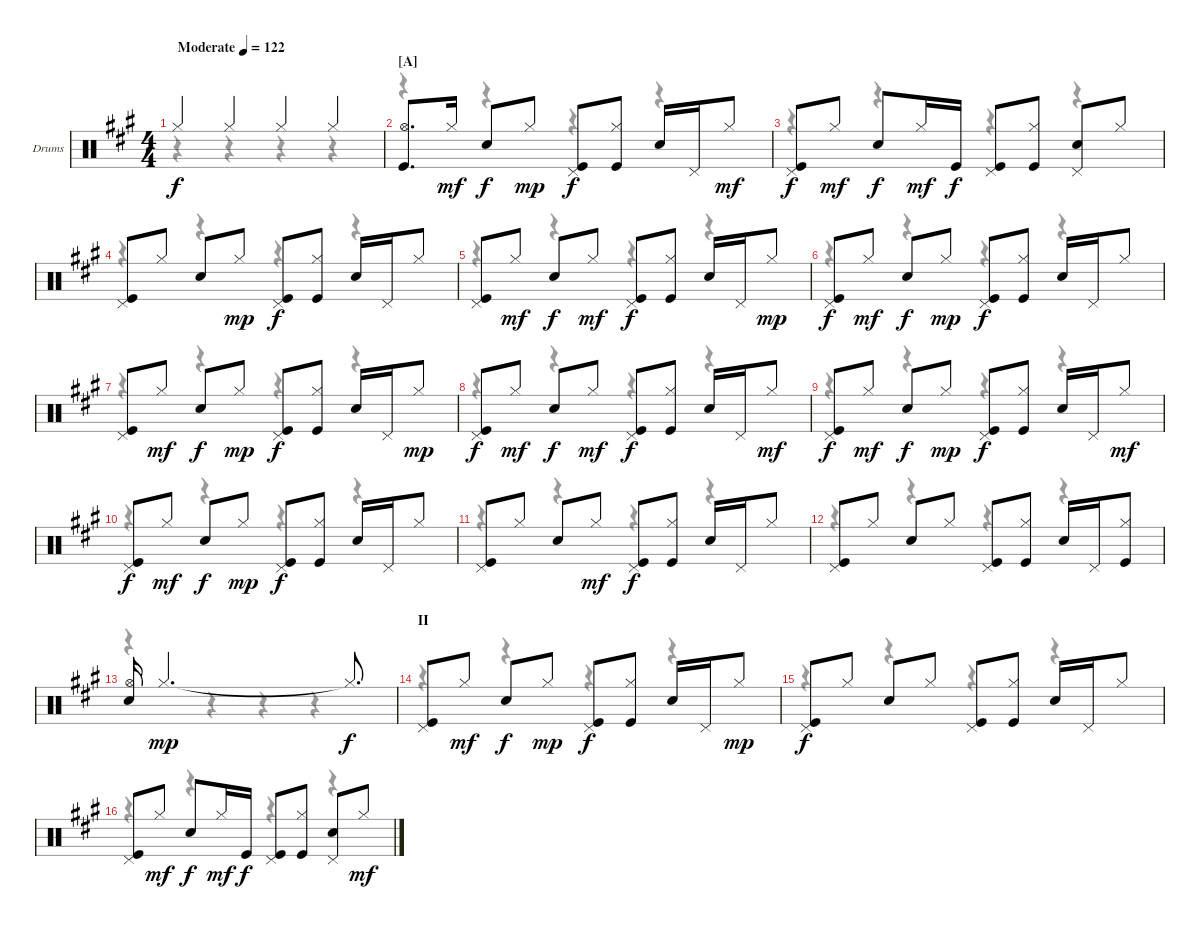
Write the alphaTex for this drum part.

\bracketExtendMode groupsimilarinstruments
\firstSystemTrackNameOrientation horizontal
\otherSystemsTrackNameOrientation horizontal
\track ("Chris Layton - Drums" "Drums") {instrument percussion}
\staff {score}
\articulation defaults
\voice
\ts (4 4)
\beaming (8 2 2 2 2)
\tempo (122 "Moderate")
\clef neutral
\ks a "Hi-Hat (closed)".4{dy f} "Hi-Hat (closed)".4 "Hi-Hat (closed)".4 "Hi-Hat (closed)".4
|
\section ("A" "")
("Kick (hit)" "Hi-Hat (open)").8{d} "Hi-Hat (closed)".16{dy mf} "Snare (hit) 2".8{dy f} "Hi-Hat (closed)".8{dy mp} ("Kick (hit)" "Pedal Hi-Hat (hit)").8{dy f} ("Kick (hit)" "Hi-Hat (closed)").8 "Snare (hit) 2".16 "Pedal Hi-Hat (hit)".16 "Hi-Hat (closed)".8{dy mf} |
("Kick (hit)" "Pedal Hi-Hat (hit)").8{dy f} "Hi-Hat (closed)".8{dy mf} "Snare (hit) 2".8{dy f} "Hi-Hat (closed)".16{dy mf} "Kick (hit)".16{dy f} ("Kick (hit)" "Pedal Hi-Hat (hit)").8 ("Kick (hit)" "Hi-Hat (closed)").8 ("Snare (hit) 2" "Pedal Hi-Hat (hit)").8 "Hi-Hat (closed)".8 |
("Kick (hit)" "Pedal Hi-Hat (hit)").8 "Hi-Hat (closed)".8 "Snare (hit) 2".8 "Hi-Hat (closed)".8{dy mp} ("Kick (hit)" "Pedal Hi-Hat (hit)").8{dy f} ("Kick (hit)" "Hi-Hat (closed)").8 "Snare (hit) 2".16 "Pedal Hi-Hat (hit)".16 "Hi-Hat (closed)".8 |
("Kick (hit)" "Pedal Hi-Hat (hit)").8 "Hi-Hat (closed)".8{dy mf} "Snare (hit) 2".8{dy f} "Hi-Hat (closed)".8{dy mf} ("Kick (hit)" "Pedal Hi-Hat (hit)").8{dy f} ("Kick (hit)" "Hi-Hat (closed)").8 "Snare (hit) 2".16 "Pedal Hi-Hat (hit)".16 "Hi-Hat (closed)".8{dy mp} |
("Kick (hit)" "Pedal Hi-Hat (hit)").8{dy f} "Hi-Hat (closed)".8{dy mf} "Snare (hit) 2".8{dy f} "Hi-Hat (closed)".8{dy mp} ("Kick (hit)" "Pedal Hi-Hat (hit)").8{dy f} ("Kick (hit)" "Hi-Hat (closed)").8 "Snare (hit) 2".16 "Pedal Hi-Hat (hit)".16 "Hi-Hat (closed)".8 |
("Kick (hit)" "Pedal Hi-Hat (hit)").8 "Hi-Hat (closed)".8{dy mf} "Snare (hit) 2".8{dy f} "Hi-Hat (closed)".8{dy mp} ("Kick (hit)" "Pedal Hi-Hat (hit)").8{dy f} ("Kick (hit)" "Hi-Hat (closed)").8 "Snare (hit) 2".16 "Pedal Hi-Hat (hit)".16 "Hi-Hat (closed)".8{dy mp} |
("Kick (hit)" "Pedal Hi-Hat (hit)").8{dy f} "Hi-Hat (closed)".8{dy mf} "Snare (hit) 2".8{dy f} "Hi-Hat (closed)".8{dy mf} ("Kick (hit)" "Pedal Hi-Hat (hit)").8{dy f} ("Kick (hit)" "Hi-Hat (closed)").8 "Snare (hit) 2".16 "Pedal Hi-Hat (hit)".16 "Hi-Hat (closed)".8{dy mf} |
("Kick (hit)" "Pedal Hi-Hat (hit)").8{dy f} "Hi-Hat (closed)".8{dy mf} "Snare (hit) 2".8{dy f} "Hi-Hat (closed)".8{dy mp} ("Kick (hit)" "Pedal Hi-Hat (hit)").8{dy f} ("Kick (hit)" "Hi-Hat (closed)").8 "Snare (hit) 2".16 "Pedal Hi-Hat (hit)".16 "Hi-Hat (closed)".8{dy mf} |
("Kick (hit)" "Pedal Hi-Hat (hit)").8{dy f} "Hi-Hat (closed)".8{dy mf} "Snare (hit) 2".8{dy f} "Hi-Hat (closed)".8{dy mp} ("Kick (hit)" "Pedal Hi-Hat (hit)").8{dy f} ("Kick (hit)" "Hi-Hat (closed)").8 "Snare (hit) 2".16 "Pedal Hi-Hat (hit)".16 "Hi-Hat (closed)".8 |
("Kick (hit)" "Pedal Hi-Hat (hit)").8 "Hi-Hat (closed)".8 "Snare (hit) 2".8 "Hi-Hat (closed)".8{dy mf} ("Kick (hit)" "Pedal Hi-Hat (hit)").8{dy f} ("Kick (hit)" "Hi-Hat (closed)").8 "Snare (hit) 2".16 "Pedal Hi-Hat (hit)".16 "Hi-Hat (closed)".8 |
("Kick (hit)" "Pedal Hi-Hat (hit)").8 "Hi-Hat (closed)".8 "Snare (hit) 2".8 "Hi-Hat (closed)".8 ("Kick (hit)" "Pedal Hi-Hat (hit)").8 ("Kick (hit)" "Hi-Hat (closed)").8 "Snare (hit) 2".16 "Pedal Hi-Hat (hit)".16 ("Kick (hit)" "Hi-Hat (closed)").8 |
("Snare (hit) 2" "Hi-Hat (open)").16 "Hi-Hat (closed)".2{d dy mp} "Hi-Hat (closed)"{t}.8{d dy f} |
\section ("" "II")
("Kick (hit)" "Pedal Hi-Hat (hit)").8 "Hi-Hat (closed)".8{dy mf} "Snare (hit) 2".8{dy f} "Hi-Hat (closed)".8{dy mp} ("Kick (hit)" "Pedal Hi-Hat (hit)").8{dy f} ("Kick (hit)" "Hi-Hat (closed)").8 "Snare (hit) 2".16 "Pedal Hi-Hat (hit)".16 "Hi-Hat (closed)".8{dy mp} |
("Kick (hit)" "Pedal Hi-Hat (hit)").8{dy f} "Hi-Hat (closed)".8 "Snare (hit) 2".8 "Hi-Hat (closed)".8 ("Kick (hit)" "Pedal Hi-Hat (hit)").8 ("Kick (hit)" "Hi-Hat (closed)").8 "Snare (hit) 2".16 "Pedal Hi-Hat (hit)".16 "Hi-Hat (closed)".8 |
("Kick (hit)" "Pedal Hi-Hat (hit)").8 "Hi-Hat (closed)".8{dy mf} "Snare (hit) 2".8{dy f} "Hi-Hat (closed)".16{dy mf} "Kick (hit)".16{dy f} ("Kick (hit)" "Pedal Hi-Hat (hit)").8 ("Kick (hit)" "Hi-Hat (closed)").8 ("Snare (hit) 2" "Pedal Hi-Hat (hit)").8 "Hi-Hat (closed)".8{dy mf}
\voice
\clef neutral
\ottava regular
\simile none
\ks a
r.4{dy mf} r.4 r.4 r.4 |
r.4 r.4 r.4 r.4 |
r.4 r.4 r.4 r.4 |
r.4 r.4 r.4 r.4 |
r.4 r.4 r.4 r.4 |
r.4 r.4 r.4 r.4 |
r.4 r.4 r.4 r.4 |
r.4 r.4 r.4 r.4 |
r.4 r.4 r.4 r.4 |
r.4 r.4 r.4 r.4 |
r.4 r.4 r.4 r.4 |
r.4 r.4 r.4 r.4 |
r.4 r.4 r.4 r.4 |
r.4 r.4 r.4 r.4 |
r.4 r.4 r.4 r.4 |
r.4 r.4 r.4 r.4
